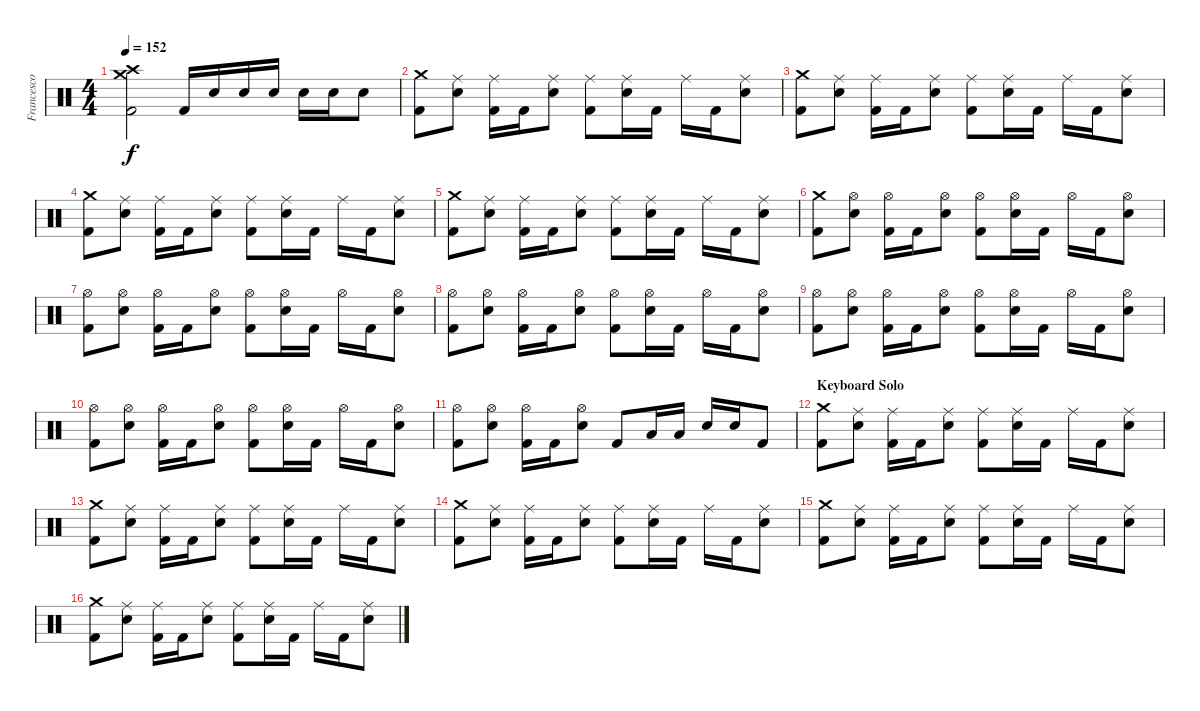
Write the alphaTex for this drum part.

\track ("Francesco Tresa" "Francesco ") {instrument percussion}
\staff {score}
\articulation defaults
\ts (4 4)
\tempo 152
\clef neutral
\ks c
("Kick (hit) 2" "Crash medium (hit)" "Crash high (hit)").2{dy f} "Kick (hit) 2".16 "Snare (hit) 2".16 "Snare (hit) 2".16 "Snare (hit) 2".16 "Snare (hit) 2".16 "Snare (hit) 2".16 "Snare (hit) 2".8 |
("Kick (hit) 2" "Crash medium (hit)").8 ("Snare (hit) 2" "Ride (middle)").8 ("Kick (hit) 2" "Ride (middle)").16 "Kick (hit) 2".16 ("Snare (hit) 2" "Ride (middle)").8 ("Kick (hit) 2" "Ride (middle)").8 ("Snare (hit) 2" "Ride (middle)").16 "Kick (hit) 2".16 "Ride (middle)".16 "Kick (hit) 2".16 ("Snare (hit) 2" "Ride (middle)").8 |
("Kick (hit) 2" "Crash medium (hit)").8 ("Snare (hit) 2" "Ride (middle)").8 ("Kick (hit) 2" "Ride (middle)").16 "Kick (hit) 2".16 ("Snare (hit) 2" "Ride (middle)").8 ("Kick (hit) 2" "Ride (middle)").8 ("Snare (hit) 2" "Ride (middle)").16 "Kick (hit) 2".16 "Ride (middle)".16 "Kick (hit) 2".16 ("Snare (hit) 2" "Ride (middle)").8 |
("Kick (hit) 2" "Crash medium (hit)").8 ("Snare (hit) 2" "Ride (middle)").8 ("Kick (hit) 2" "Ride (middle)").16 "Kick (hit) 2".16 ("Snare (hit) 2" "Ride (middle)").8 ("Kick (hit) 2" "Ride (middle)").8 ("Snare (hit) 2" "Ride (middle)").16 "Kick (hit) 2".16 "Ride (middle)".16 "Kick (hit) 2".16 ("Snare (hit) 2" "Ride (middle)").8 |
("Kick (hit) 2" "Crash medium (hit)").8 ("Snare (hit) 2" "Ride (middle)").8 ("Kick (hit) 2" "Ride (middle)").16 "Kick (hit) 2".16 ("Snare (hit) 2" "Ride (middle)").8 ("Kick (hit) 2" "Ride (middle)").8 ("Snare (hit) 2" "Ride (middle)").16 "Kick (hit) 2".16 "Ride (middle)".16 "Kick (hit) 2".16 ("Snare (hit) 2" "Ride (middle)").8 |
("Kick (hit) 2" "Crash medium (hit)").8 ("Snare (hit) 2" "Hi-Hat (open)").8 ("Kick (hit) 2" "Hi-Hat (open)").16 "Kick (hit) 2".16 ("Snare (hit) 2" "Hi-Hat (open)").8 ("Kick (hit) 2" "Hi-Hat (open)").8 ("Snare (hit) 2" "Hi-Hat (open)").16 "Kick (hit) 2".16 "Hi-Hat (open)".16 "Kick (hit) 2".16 ("Snare (hit) 2" "Hi-Hat (open)").8 |
("Kick (hit) 2" "Hi-Hat (open)").8 ("Snare (hit) 2" "Hi-Hat (open)").8 ("Kick (hit) 2" "Hi-Hat (open)").16 "Kick (hit) 2".16 ("Snare (hit) 2" "Hi-Hat (open)").8 ("Kick (hit) 2" "Hi-Hat (open)").8 ("Snare (hit) 2" "Hi-Hat (open)").16 "Kick (hit) 2".16 "Hi-Hat (open)".16 "Kick (hit) 2".16 ("Snare (hit) 2" "Hi-Hat (open)").8 |
("Kick (hit) 2" "Hi-Hat (open)").8 ("Snare (hit) 2" "Hi-Hat (open)").8 ("Kick (hit) 2" "Hi-Hat (open)").16 "Kick (hit) 2".16 ("Snare (hit) 2" "Hi-Hat (open)").8 ("Kick (hit) 2" "Hi-Hat (open)").8 ("Snare (hit) 2" "Hi-Hat (open)").16 "Kick (hit) 2".16 "Hi-Hat (open)".16 "Kick (hit) 2".16 ("Snare (hit) 2" "Hi-Hat (open)").8 |
("Kick (hit) 2" "Hi-Hat (open)").8 ("Snare (hit) 2" "Hi-Hat (open)").8 ("Kick (hit) 2" "Hi-Hat (open)").16 "Kick (hit) 2".16 ("Snare (hit) 2" "Hi-Hat (open)").8 ("Kick (hit) 2" "Hi-Hat (open)").8 ("Snare (hit) 2" "Hi-Hat (open)").16 "Kick (hit) 2".16 "Hi-Hat (open)".16 "Kick (hit) 2".16 ("Snare (hit) 2" "Hi-Hat (open)").8 |
("Kick (hit) 2" "Hi-Hat (open)").8 ("Snare (hit) 2" "Hi-Hat (open)").8 ("Kick (hit) 2" "Hi-Hat (open)").16 "Kick (hit) 2".16 ("Snare (hit) 2" "Hi-Hat (open)").8 ("Kick (hit) 2" "Hi-Hat (open)").8 ("Snare (hit) 2" "Hi-Hat (open)").16 "Kick (hit) 2".16 "Hi-Hat (open)".16 "Kick (hit) 2".16 ("Snare (hit) 2" "Hi-Hat (open)").8 |
("Kick (hit) 2" "Hi-Hat (open)").8 ("Snare (hit) 2" "Hi-Hat (open)").8 ("Kick (hit) 2" "Hi-Hat (open)").16 "Kick (hit) 2".16 ("Snare (hit) 2" "Hi-Hat (open)").8 "Kick (hit) 2".8 "Low Tom (hit)".16 "Low Tom (hit)".16 "Snare (hit) 2".16 "Snare (hit) 2".16 "Kick (hit) 2".8 |
\section ("" "Keyboard Solo")
("Kick (hit) 2" "Crash medium (hit)").8 ("Snare (hit) 2" "Ride (middle)").8 ("Kick (hit) 2" "Ride (middle)").16 "Kick (hit) 2".16 ("Snare (hit) 2" "Ride (middle)").8 ("Kick (hit) 2" "Ride (middle)").8 ("Snare (hit) 2" "Ride (middle)").16 "Kick (hit) 2".16 "Ride (middle)".16 "Kick (hit) 2".16 ("Snare (hit) 2" "Ride (middle)").8 |
("Kick (hit) 2" "Crash medium (hit)").8 ("Snare (hit) 2" "Ride (middle)").8 ("Kick (hit) 2" "Ride (middle)").16 "Kick (hit) 2".16 ("Snare (hit) 2" "Ride (middle)").8 ("Kick (hit) 2" "Ride (middle)").8 ("Snare (hit) 2" "Ride (middle)").16 "Kick (hit) 2".16 "Ride (middle)".16 "Kick (hit) 2".16 ("Snare (hit) 2" "Ride (middle)").8 |
("Kick (hit) 2" "Crash medium (hit)").8 ("Snare (hit) 2" "Ride (middle)").8 ("Kick (hit) 2" "Ride (middle)").16 "Kick (hit) 2".16 ("Snare (hit) 2" "Ride (middle)").8 ("Kick (hit) 2" "Ride (middle)").8 ("Snare (hit) 2" "Ride (middle)").16 "Kick (hit) 2".16 "Ride (middle)".16 "Kick (hit) 2".16 ("Snare (hit) 2" "Ride (middle)").8 |
("Kick (hit) 2" "Crash medium (hit)").8 ("Snare (hit) 2" "Ride (middle)").8 ("Kick (hit) 2" "Ride (middle)").16 "Kick (hit) 2".16 ("Snare (hit) 2" "Ride (middle)").8 ("Kick (hit) 2" "Ride (middle)").8 ("Snare (hit) 2" "Ride (middle)").16 "Kick (hit) 2".16 "Ride (middle)".16 "Kick (hit) 2".16 ("Snare (hit) 2" "Ride (middle)").8 |
("Kick (hit) 2" "Crash medium (hit)").8 ("Snare (hit) 2" "Ride (middle)").8 ("Kick (hit) 2" "Ride (middle)").16 "Kick (hit) 2".16 ("Snare (hit) 2" "Ride (middle)").8 ("Kick (hit) 2" "Ride (middle)").8 ("Snare (hit) 2" "Ride (middle)").16 "Kick (hit) 2".16 "Ride (middle)".16 "Kick (hit) 2".16 ("Snare (hit) 2" "Ride (middle)").8
